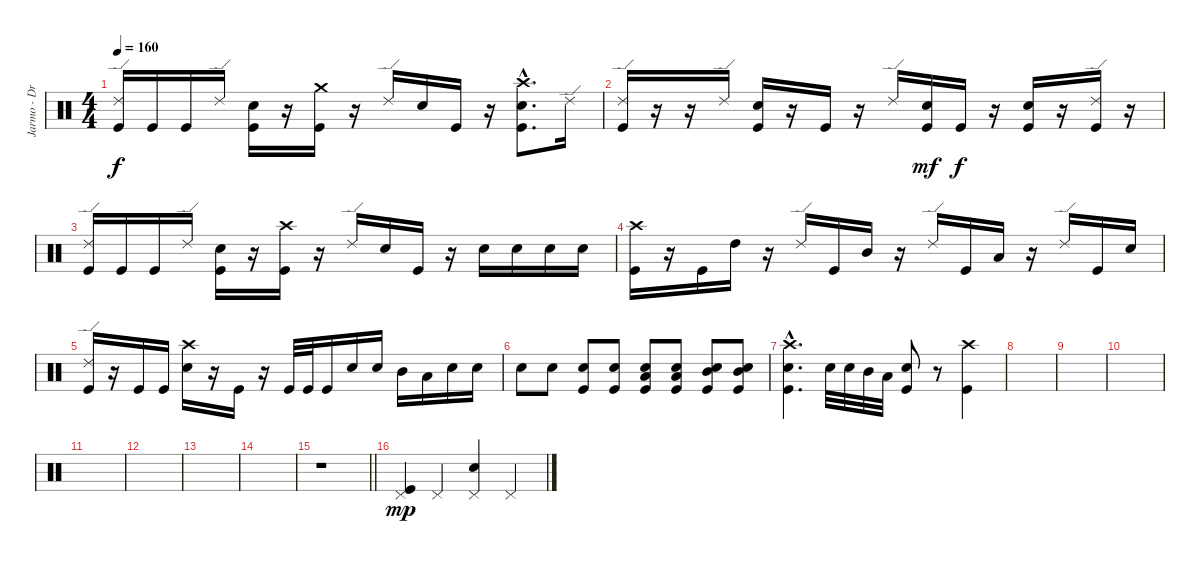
\track ("Jarmo - Drums" "Jarmo - Dr") {instrument percussion}
\staff {score}
\articulation defaults
\ts (4 4)
\tempo 160
\clef neutral
\ks c
("Kick (hit)" "Ride (edge) 2").16{dy f} "Kick (hit)".16 "Kick (hit)".16 "Ride (edge) 2".16 ("Kick (hit)" "Electric Snare (hit)").16 r.16 ("Kick (hit)" "Crash medium (hit)").16 r.16 "Ride (edge) 2".16 "Electric Snare (hit)".16 "Kick (hit)".16 r.16 ("Kick (hit)"{hac} "Electric Snare (hit)"{hac} "Crash high (hit)"{hac}).8{d} "Ride (edge) 2".16 |
("Kick (hit)" "Ride (edge) 2").16 r.16 r.16 "Ride (edge) 2".16 ("Kick (hit)" "Electric Snare (hit)").16 r.16 "Kick (hit)".16 r.16 "Ride (edge) 2".16 ("Kick (hit)" "Electric Snare (hit)").16{dy mf} "Kick (hit)".16{dy f} r.16 ("Kick (hit)" "Electric Snare (hit)").16 r.16 ("Kick (hit)" "Ride (edge) 2").16 r.16 |
("Kick (hit)" "Ride (edge) 2").16 "Kick (hit)".16 "Kick (hit)".16 "Ride (edge) 2".16 ("Kick (hit)" "Electric Snare (hit)").16 r.16 ("Kick (hit)" "Crash high (hit)").16 r.16 "Ride (edge) 2".16 "Electric Snare (hit)".16 "Kick (hit)".16 r.16 "Electric Snare (hit)".16 "Electric Snare (hit)".16 "Electric Snare (hit)".16 "Electric Snare (hit)".16 |
("Kick (hit)" "Crash high (hit)").16 r.16 "Kick (hit)".16 "High Tom (hit)".16 r.16 "Ride (edge) 2".16 "Kick (hit)".16 "Mid Tom (hit)".16 r.16 "Ride (edge) 2".16 "Kick (hit)".16 "Low Tom (hit)".16 r.16 "Ride (edge) 2".16 "Kick (hit)".16 "Electric Snare (hit)".16 |
("Kick (hit)" "Ride (edge) 2").16 r.16 "Kick (hit)".16 "Kick (hit)".16 ("Electric Snare (hit)" "Crash high (hit)").16 r.16 "Kick (hit)".16 r.16 "Kick (hit)".32 "Kick (hit)".32 "Kick (hit)".16 "Electric Snare (hit)".16 "Electric Snare (hit)".16 "Mid Tom (hit)".16 "Low Tom (hit)".16 "Electric Snare (hit)".16 "Electric Snare (hit)".16 |
"Electric Snare (hit)".8 "Electric Snare (hit)".8 ("Kick (hit)" "Electric Snare (hit)").8 ("Kick (hit)" "Electric Snare (hit)").8 ("Kick (hit)" "Electric Snare (hit)" "Low Tom (hit)").8 ("Kick (hit)" "Electric Snare (hit)" "Low Tom (hit)").8 ("Kick (hit)" "Electric Snare (hit)" "Mid Tom (hit)").8 ("Kick (hit)" "Electric Snare (hit)" "Mid Tom (hit)").8 |
("Kick (hit)"{hac} "Electric Snare (hit)"{hac} "Crash high (hit)"{hac}).4{d} "Electric Snare (hit)".32 "Electric Snare (hit)".32 "Mid Tom (hit)".32 "Low Tom (hit)".32 ("Kick (hit)" "Electric Snare (hit)").8 r.8 ("Kick (hit)" "Crash high (hit)").4 |
|
|
|
|
|
|
|
\barLineRight lightlight
r.1 |
("Kick (hit)" "Pedal Hi-Hat (hit)").4{dy mp} "Pedal Hi-Hat (hit)".4 ("Electric Snare (hit)" "Pedal Hi-Hat (hit)").4 "Pedal Hi-Hat (hit)".4
